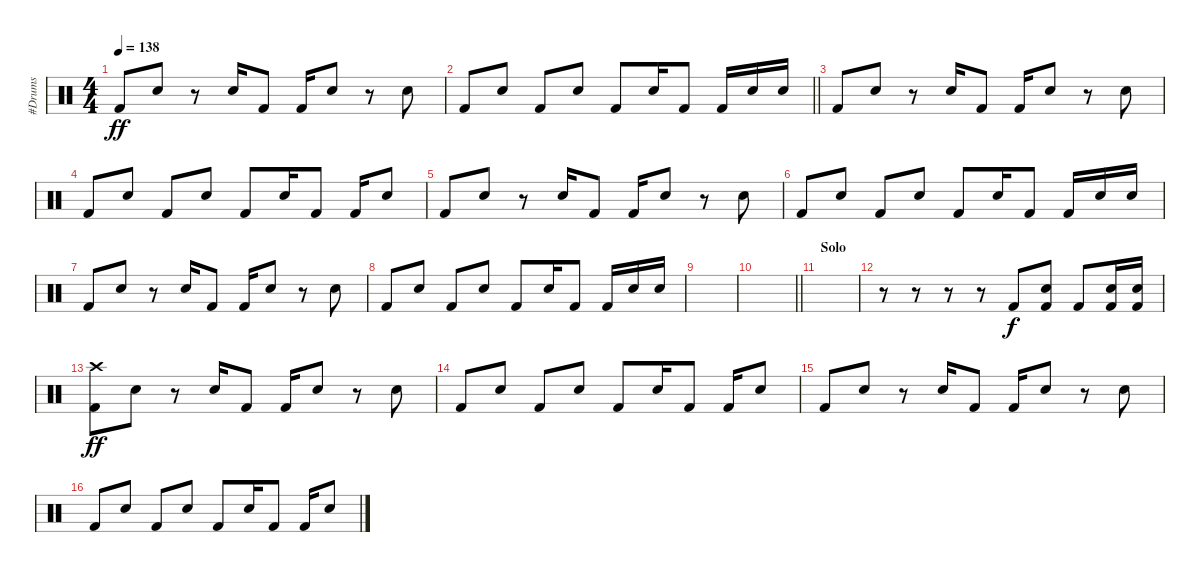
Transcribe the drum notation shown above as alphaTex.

\track ("#Drums" "#Drums") {instrument percussion}
\staff {score}
\articulation defaults
\ts (4 4)
\tempo 138
\clef neutral
\ks c "Kick (hit) 2".8{dy ff} "Snare (hit) 2".8
r.8 "Snare (hit) 2".16 "Kick (hit) 2".8 "Kick (hit) 2".16 "Snare (hit) 2".8 r.8 "Snare (hit) 2".8 |
\barLineRight lightlight "Kick (hit) 2".8 "Snare (hit) 2".8 "Kick (hit) 2".8 "Snare (hit) 2".8 "Kick (hit) 2".8 "Snare (hit) 2".16 "Kick (hit) 2".8 "Kick (hit) 2".16 "Snare (hit) 2".16 "Snare (hit) 2".16
|
"Kick (hit) 2".8 "Snare (hit) 2".8 r.8 "Snare (hit) 2".16 "Kick (hit) 2".8 "Kick (hit) 2".16 "Snare (hit) 2".8 r.8 "Snare (hit) 2".8 |
"Kick (hit) 2".8 "Snare (hit) 2".8 "Kick (hit) 2".8 "Snare (hit) 2".8 "Kick (hit) 2".8 "Snare (hit) 2".16 "Kick (hit) 2".8 "Kick (hit) 2".16 "Snare (hit) 2".8 |
"Kick (hit) 2".8 "Snare (hit) 2".8 r.8 "Snare (hit) 2".16 "Kick (hit) 2".8 "Kick (hit) 2".16 "Snare (hit) 2".8 r.8 "Snare (hit) 2".8 |
"Kick (hit) 2".8 "Snare (hit) 2".8 "Kick (hit) 2".8 "Snare (hit) 2".8 "Kick (hit) 2".8 "Snare (hit) 2".16 "Kick (hit) 2".8 "Kick (hit) 2".16 "Snare (hit) 2".16 "Snare (hit) 2".16 |
"Kick (hit) 2".8 "Snare (hit) 2".8 r.8 "Snare (hit) 2".16 "Kick (hit) 2".8 "Kick (hit) 2".16 "Snare (hit) 2".8 r.8 "Snare (hit) 2".8 |
"Kick (hit) 2".8 "Snare (hit) 2".8 "Kick (hit) 2".8 "Snare (hit) 2".8 "Kick (hit) 2".8 "Snare (hit) 2".16 "Kick (hit) 2".8 "Kick (hit) 2".16 "Snare (hit) 2".16 "Snare (hit) 2".16 |
|
\barLineRight lightlight
|
\section ("" "Solo ")
|
r.8 r.8 r.8 r.8 "Kick (hit) 2".8{dy f} ("Kick (hit) 2" "Snare (hit) 2").8 "Kick (hit) 2".8 ("Kick (hit) 2" "Snare (hit) 2").16 ("Kick (hit) 2" "Snare (hit) 2").16 |
("Crash high (hit)" "Kick (hit) 2").8{dy ff} "Snare (hit) 2".8 r.8 "Snare (hit) 2".16 "Kick (hit) 2".8 "Kick (hit) 2".16 "Snare (hit) 2".8 r.8 "Snare (hit) 2".8 |
"Kick (hit) 2".8 "Snare (hit) 2".8 "Kick (hit) 2".8 "Snare (hit) 2".8 "Kick (hit) 2".8 "Snare (hit) 2".16 "Kick (hit) 2".8 "Kick (hit) 2".16 "Snare (hit) 2".8 |
"Kick (hit) 2".8 "Snare (hit) 2".8 r.8 "Snare (hit) 2".16 "Kick (hit) 2".8 "Kick (hit) 2".16 "Snare (hit) 2".8 r.8 "Snare (hit) 2".8 |
"Kick (hit) 2".8 "Snare (hit) 2".8 "Kick (hit) 2".8 "Snare (hit) 2".8 "Kick (hit) 2".8 "Snare (hit) 2".16 "Kick (hit) 2".8 "Kick (hit) 2".16 "Snare (hit) 2".8
